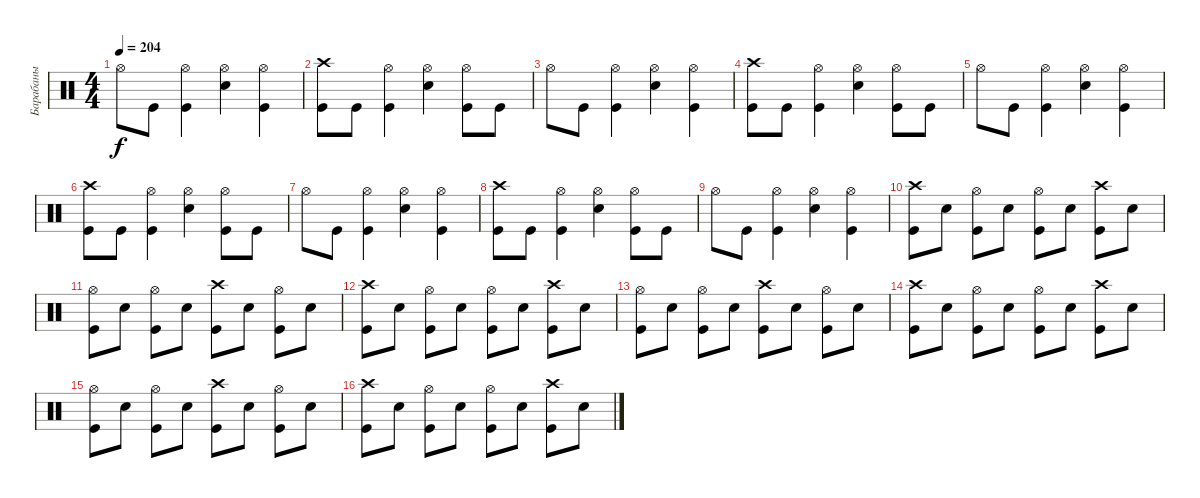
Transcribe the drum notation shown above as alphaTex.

\track ("Барабаны" "Барабаны") {instrument percussion}
\staff {score}
\articulation defaults
\ts (4 4)
\tempo 204
\clef neutral
\ks c "Hi-Hat (open)".8{dy f} "Kick (hit)".8
("Hi-Hat (open)" "Kick (hit)").4 ("Hi-Hat (open)" "Electric Snare (hit)").4 ("Hi-Hat (open)" "Kick (hit)").4 |
("Crash high (hit)" "Kick (hit)").8 "Kick (hit)".8 ("Hi-Hat (open)" "Kick (hit)").4 ("Hi-Hat (open)" "Electric Snare (hit)").4 ("Hi-Hat (open)" "Kick (hit)").8 "Kick (hit)".8 |
"Hi-Hat (open)".8 "Kick (hit)".8 ("Hi-Hat (open)" "Kick (hit)").4 ("Hi-Hat (open)" "Electric Snare (hit)").4 ("Hi-Hat (open)" "Kick (hit)").4 |
("Crash high (hit)" "Kick (hit)").8 "Kick (hit)".8 ("Hi-Hat (open)" "Kick (hit)").4 ("Hi-Hat (open)" "Electric Snare (hit)").4 ("Hi-Hat (open)" "Kick (hit)").8 "Kick (hit)".8 |
"Hi-Hat (open)".8 "Kick (hit)".8 ("Hi-Hat (open)" "Kick (hit)").4 ("Hi-Hat (open)" "Electric Snare (hit)").4 ("Hi-Hat (open)" "Kick (hit)").4 |
("Crash high (hit)" "Kick (hit)").8 "Kick (hit)".8 ("Hi-Hat (open)" "Kick (hit)").4 ("Hi-Hat (open)" "Electric Snare (hit)").4 ("Hi-Hat (open)" "Kick (hit)").8 "Kick (hit)".8 |
"Hi-Hat (open)".8 "Kick (hit)".8 ("Hi-Hat (open)" "Kick (hit)").4 ("Hi-Hat (open)" "Electric Snare (hit)").4 ("Hi-Hat (open)" "Kick (hit)").4 |
("Crash high (hit)" "Kick (hit)").8 "Kick (hit)".8 ("Hi-Hat (open)" "Kick (hit)").4 ("Hi-Hat (open)" "Electric Snare (hit)").4 ("Hi-Hat (open)" "Kick (hit)").8 "Kick (hit)".8 |
"Hi-Hat (open)".8 "Kick (hit)".8 ("Hi-Hat (open)" "Kick (hit)").4 ("Hi-Hat (open)" "Electric Snare (hit)").4 ("Hi-Hat (open)" "Kick (hit)").4 |
("Crash high (hit)" "Kick (hit)").8 "Electric Snare (hit)".8 ("Hi-Hat (open)" "Kick (hit)").8 "Electric Snare (hit)".8 ("Hi-Hat (open)" "Kick (hit)").8 "Electric Snare (hit)".8 ("Crash high (hit)" "Kick (hit)").8 "Electric Snare (hit)".8 |
("Hi-Hat (open)" "Kick (hit)").8 "Electric Snare (hit)".8 ("Hi-Hat (open)" "Kick (hit)").8 "Electric Snare (hit)".8 ("Crash high (hit)" "Kick (hit)").8 "Electric Snare (hit)".8 ("Hi-Hat (open)" "Kick (hit)").8 "Electric Snare (hit)".8 |
("Crash high (hit)" "Kick (hit)").8 "Electric Snare (hit)".8 ("Hi-Hat (open)" "Kick (hit)").8 "Electric Snare (hit)".8 ("Hi-Hat (open)" "Kick (hit)").8 "Electric Snare (hit)".8 ("Crash high (hit)" "Kick (hit)").8 "Electric Snare (hit)".8 |
("Hi-Hat (open)" "Kick (hit)").8 "Electric Snare (hit)".8 ("Hi-Hat (open)" "Kick (hit)").8 "Electric Snare (hit)".8 ("Crash high (hit)" "Kick (hit)").8 "Electric Snare (hit)".8 ("Hi-Hat (open)" "Kick (hit)").8 "Electric Snare (hit)".8 |
("Crash high (hit)" "Kick (hit)").8 "Electric Snare (hit)".8 ("Hi-Hat (open)" "Kick (hit)").8 "Electric Snare (hit)".8 ("Hi-Hat (open)" "Kick (hit)").8 "Electric Snare (hit)".8 ("Crash high (hit)" "Kick (hit)").8 "Electric Snare (hit)".8 |
("Hi-Hat (open)" "Kick (hit)").8 "Electric Snare (hit)".8 ("Hi-Hat (open)" "Kick (hit)").8 "Electric Snare (hit)".8 ("Crash high (hit)" "Kick (hit)").8 "Electric Snare (hit)".8 ("Hi-Hat (open)" "Kick (hit)").8 "Electric Snare (hit)".8 |
("Crash high (hit)" "Kick (hit)").8 "Electric Snare (hit)".8 ("Hi-Hat (open)" "Kick (hit)").8 "Electric Snare (hit)".8 ("Hi-Hat (open)" "Kick (hit)").8 "Electric Snare (hit)".8 ("Crash high (hit)" "Kick (hit)").8 "Electric Snare (hit)".8
